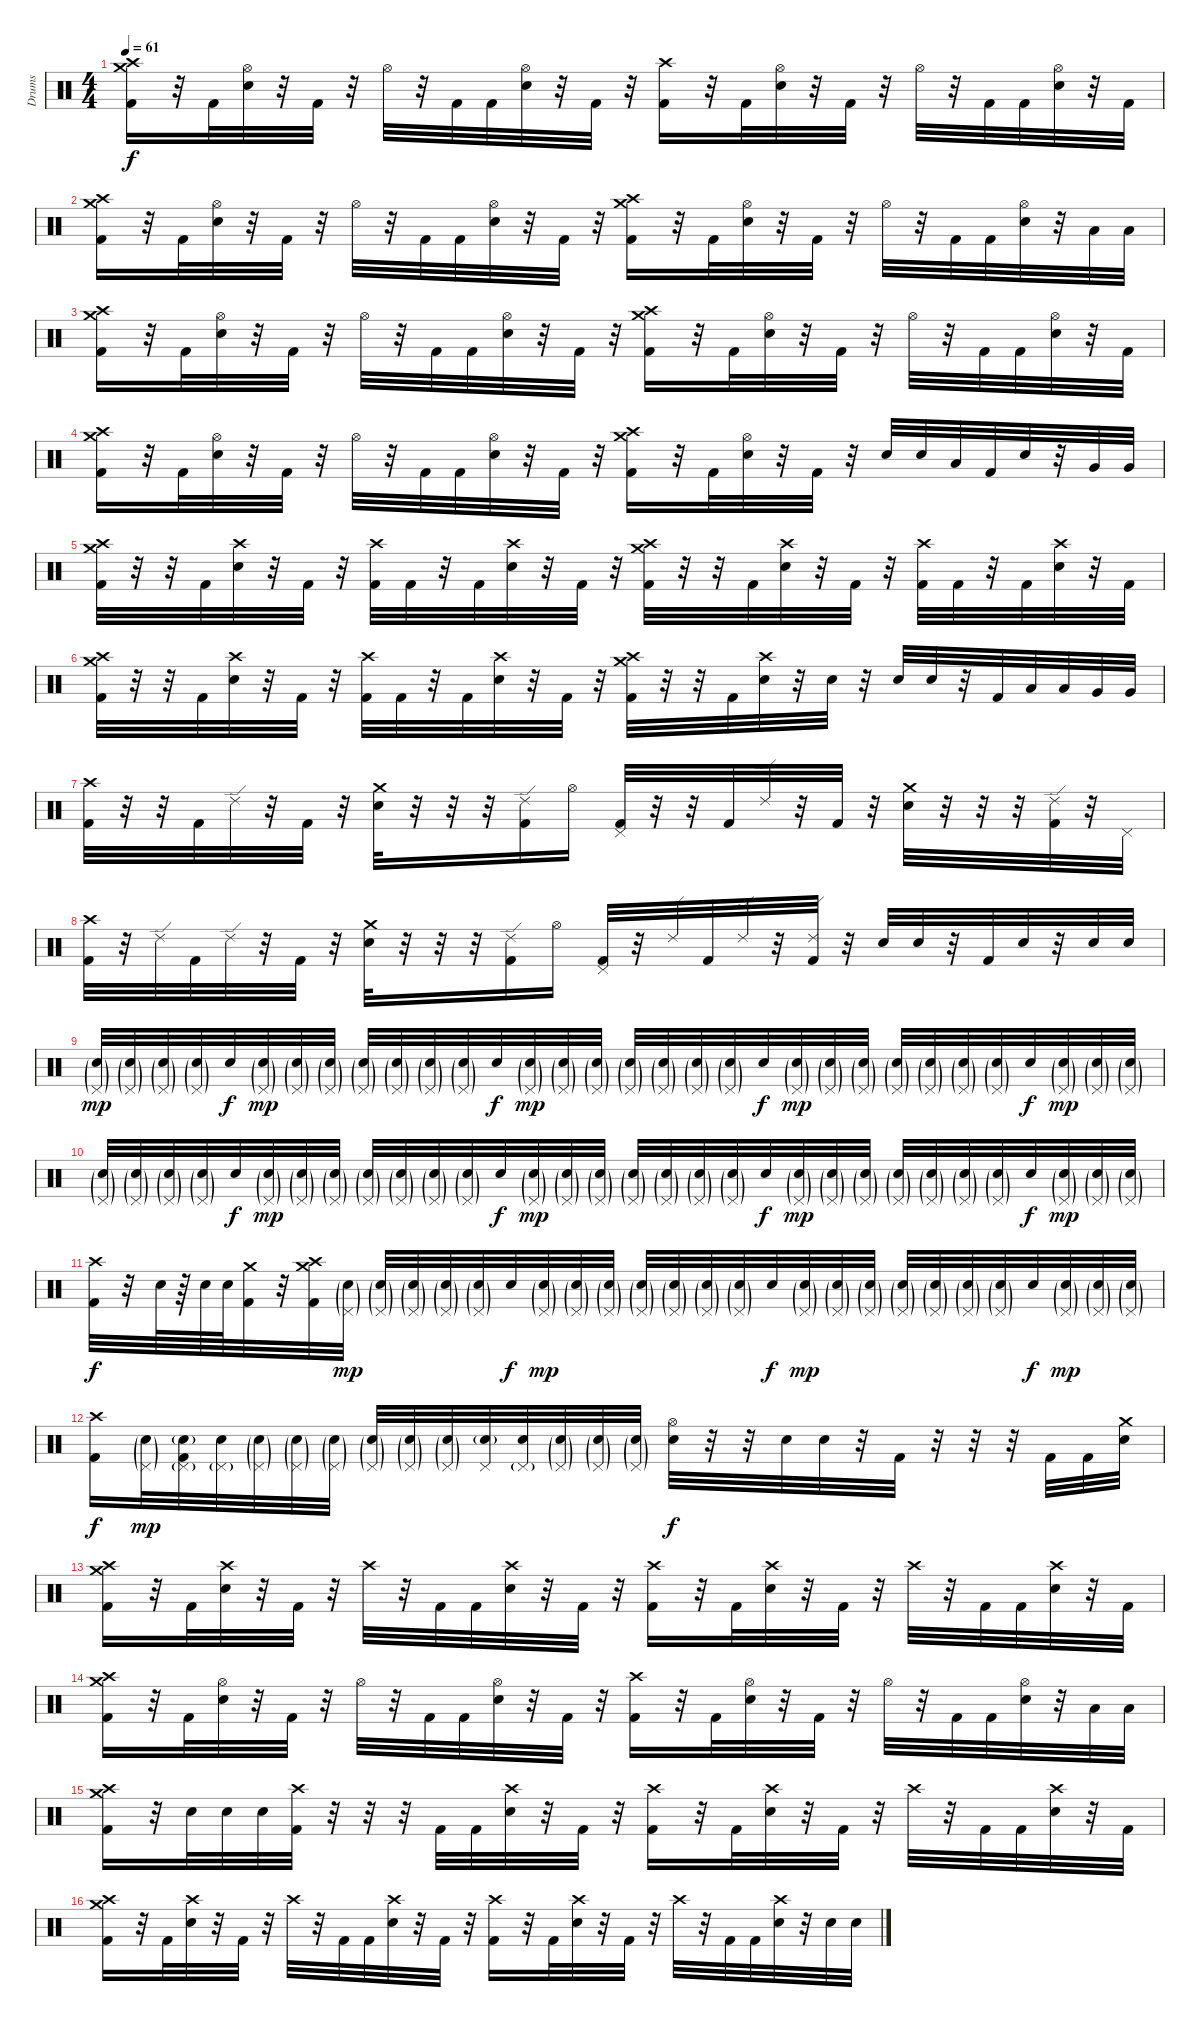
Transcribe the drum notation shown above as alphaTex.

\track ("Drums" "Drums") {instrument percussion}
\staff {score}
\articulation defaults
\ts (4 4)
\tempo 61
\clef neutral
\ks c
("Crash high (hit)" "Crash medium (hit)" "Kick (hit) 2").16{dy f} r.32 "Kick (hit) 2".32 ("Hi-Hat (open)" "Electric Snare (hit)").32 r.32 "Kick (hit) 2".32 r.32 "Hi-Hat (open)".32 r.32 "Kick (hit) 2".32 "Kick (hit) 2".32 ("Hi-Hat (open)" "Electric Snare (hit)").32 r.32 "Kick (hit) 2".32 r.32 ("Crash high (hit)" "Kick (hit) 2").16 r.32 "Kick (hit) 2".32 ("Hi-Hat (open)" "Electric Snare (hit)").32 r.32 "Kick (hit) 2".32 r.32 "Hi-Hat (open)".32 r.32 "Kick (hit) 2".32 "Kick (hit) 2".32 ("Hi-Hat (open)" "Electric Snare (hit)").32 r.32 "Kick (hit) 2".32 |
("Crash high (hit)" "Crash medium (hit)" "Kick (hit) 2").16 r.32 "Kick (hit) 2".32 ("Hi-Hat (open)" "Electric Snare (hit)").32 r.32 "Kick (hit) 2".32 r.32 "Hi-Hat (open)".32 r.32 "Kick (hit) 2".32 "Kick (hit) 2".32 ("Hi-Hat (open)" "Electric Snare (hit)").32 r.32 "Kick (hit) 2".32 r.32 ("Crash high (hit)" "Crash medium (hit)" "Kick (hit) 2").16 r.32 "Kick (hit) 2".32 ("Hi-Hat (open)" "Electric Snare (hit)").32 r.32 "Kick (hit) 2".32 r.32 "Hi-Hat (open)".32 r.32 "Kick (hit) 2".32 "Kick (hit) 2".32 ("Hi-Hat (open)" "Electric Snare (hit)").32 r.32 "Low Tom (hit)".32 "Low Tom (hit)".32 |
("Crash high (hit)" "Crash medium (hit)" "Kick (hit) 2").16 r.32 "Kick (hit) 2".32 ("Hi-Hat (open)" "Electric Snare (hit)").32 r.32 "Kick (hit) 2".32 r.32 "Hi-Hat (open)".32 r.32 "Kick (hit) 2".32 "Kick (hit) 2".32 ("Hi-Hat (open)" "Electric Snare (hit)").32 r.32 "Kick (hit) 2".32 r.32 ("Crash high (hit)" "Crash medium (hit)" "Kick (hit) 2").16 r.32 "Kick (hit) 2".32 ("Hi-Hat (open)" "Electric Snare (hit)").32 r.32 "Kick (hit) 2".32 r.32 "Hi-Hat (open)".32 r.32 "Kick (hit) 2".32 "Kick (hit) 2".32 ("Hi-Hat (open)" "Electric Snare (hit)").32 r.32 "Kick (hit) 2".32 |
("Crash high (hit)" "Crash medium (hit)" "Kick (hit) 2").16 r.32 "Kick (hit) 2".32 ("Hi-Hat (open)" "Electric Snare (hit)").32 r.32 "Kick (hit) 2".32 r.32 "Hi-Hat (open)".32 r.32 "Kick (hit) 2".32 "Kick (hit) 2".32 ("Hi-Hat (open)" "Electric Snare (hit)").32 r.32 "Kick (hit) 2".32 r.32 ("Crash high (hit)" "Crash medium (hit)" "Kick (hit) 2").16 r.32 "Kick (hit) 2".32 ("Hi-Hat (open)" "Electric Snare (hit)").32 r.32 "Kick (hit) 2".32 r.32 "Electric Snare (hit)".32 "Electric Snare (hit)".32 "Low Tom (hit)".32 "Kick (hit) 2".32 "Electric Snare (hit)".32 r.32 "Very Low Tom (hit)".32 "Very Low Tom (hit)".32 |
("Crash high (hit)" "Crash medium (hit)" "Kick (hit) 2").32 r.32 r.32 "Kick (hit) 2".32 ("Crash high (hit)" "Electric Snare (hit)").32 r.32 "Kick (hit) 2".32 r.32 ("Crash high (hit)" "Kick (hit) 2").32 "Kick (hit) 2".32 r.32 "Kick (hit) 2".32 ("Crash high (hit)" "Electric Snare (hit)").32 r.32 "Kick (hit) 2".32 r.32 ("Crash high (hit)" "Crash medium (hit)" "Kick (hit) 2").32 r.32 r.32 "Kick (hit) 2".32 ("Crash high (hit)" "Electric Snare (hit)").32 r.32 "Kick (hit) 2".32 r.32 ("Crash high (hit)" "Kick (hit) 2").32 "Kick (hit) 2".32 r.32 "Kick (hit) 2".32 ("Crash high (hit)" "Electric Snare (hit)").32 r.32 "Kick (hit) 2".32 |
("Crash high (hit)" "Crash medium (hit)" "Kick (hit) 2").32 r.32 r.32 "Kick (hit) 2".32 ("Crash high (hit)" "Electric Snare (hit)").32 r.32 "Kick (hit) 2".32 r.32 ("Crash high (hit)" "Kick (hit) 2").32 "Kick (hit) 2".32 r.32 "Kick (hit) 2".32 ("Crash high (hit)" "Electric Snare (hit)").32 r.32 "Kick (hit) 2".32 r.32 ("Crash high (hit)" "Crash medium (hit)" "Kick (hit) 2").32 r.32 r.32 "Kick (hit) 2".32 ("Crash high (hit)" "Electric Snare (hit)").32 r.32 "Electric Snare (hit)".32 r.32 "Electric Snare (hit)".32 "Electric Snare (hit)".32 r.32 "Kick (hit) 2".32 "Low Tom (hit)".32 "Low Tom (hit)".32 "Very Low Tom (hit)".32 "Very Low Tom (hit)".32 |
("Crash high (hit)" "Kick (hit) 2").32 r.32 r.32 "Kick (hit) 2".32 "Ride (edge) 2".32 r.32 "Kick (hit) 2".32 r.32 ("Crash medium (hit)" "Electric Snare (hit)").32 r.32 r.32 r.32 ("Ride (edge) 2" "Kick (hit) 2").16 "Hi-Hat (open)".16 ("Pedal Hi-Hat (hit)" "Kick (hit) 2").32 r.32 r.32 "Kick (hit) 2".32 "Ride (edge) 2".32 r.32 "Kick (hit) 2".32 r.32 ("Crash medium (hit)" "Electric Snare (hit)").32 r.32 r.32 r.32 ("Ride (edge) 2" "Kick (hit) 2").32 r.32 "Pedal Hi-Hat (hit)".32 |
("Crash high (hit)" "Kick (hit) 2").32 r.32 "Ride (edge) 2".32 "Kick (hit) 2".32 "Ride (edge) 2".32 r.32 "Kick (hit) 2".32 r.32 ("Crash medium (hit)" "Electric Snare (hit)").32 r.32 r.32 r.32 ("Ride (edge) 2" "Kick (hit) 2").16 "Hi-Hat (open)".16 ("Pedal Hi-Hat (hit)" "Kick (hit) 2").32 r.32 "Ride (edge) 2".32 "Kick (hit) 2".32 "Ride (edge) 2".32 r.32 ("Ride (edge) 2" "Kick (hit) 2").32 r.32 "Electric Snare (hit)".32 "Electric Snare (hit)".32 r.32 "Kick (hit) 2".32 "Electric Snare (hit)".32 r.32 "Electric Snare (hit)".32 "Electric Snare (hit)".32 |
("Pedal Hi-Hat (hit)"{g} "Snare (hit) 2"{g}).32{dy mp} ("Pedal Hi-Hat (hit)"{g} "Snare (hit) 2"{g}).32 ("Pedal Hi-Hat (hit)"{g} "Snare (hit) 2"{g}).32 ("Pedal Hi-Hat (hit)"{g} "Snare (hit) 2"{g}).32 "Electric Snare (hit)".32{dy f} ("Pedal Hi-Hat (hit)"{g} "Snare (hit) 2"{g}).32{dy mp} ("Pedal Hi-Hat (hit)"{g} "Snare (hit) 2"{g}).32 ("Pedal Hi-Hat (hit)"{g} "Snare (hit) 2"{g}).32 ("Pedal Hi-Hat (hit)"{g} "Snare (hit) 2"{g}).32 ("Pedal Hi-Hat (hit)"{g} "Snare (hit) 2"{g}).32 ("Pedal Hi-Hat (hit)"{g} "Snare (hit) 2"{g}).32 ("Pedal Hi-Hat (hit)"{g} "Snare (hit) 2"{g}).32 "Electric Snare (hit)".32{dy f} ("Pedal Hi-Hat (hit)"{g} "Snare (hit) 2"{g}).32{dy mp} ("Pedal Hi-Hat (hit)"{g} "Snare (hit) 2"{g}).32 ("Pedal Hi-Hat (hit)"{g} "Snare (hit) 2"{g}).32 ("Pedal Hi-Hat (hit)"{g} "Snare (hit) 2"{g}).32 ("Pedal Hi-Hat (hit)"{g} "Snare (hit) 2"{g}).32 ("Pedal Hi-Hat (hit)"{g} "Snare (hit) 2"{g}).32 ("Pedal Hi-Hat (hit)"{g} "Snare (hit) 2"{g}).32 "Electric Snare (hit)".32{dy f} ("Pedal Hi-Hat (hit)"{g} "Snare (hit) 2"{g}).32{dy mp} ("Pedal Hi-Hat (hit)"{g} "Snare (hit) 2"{g}).32 ("Pedal Hi-Hat (hit)"{g} "Snare (hit) 2"{g}).32 ("Pedal Hi-Hat (hit)"{g} "Snare (hit) 2"{g}).32 ("Pedal Hi-Hat (hit)"{g} "Snare (hit) 2"{g}).32 ("Pedal Hi-Hat (hit)"{g} "Snare (hit) 2"{g}).32 ("Pedal Hi-Hat (hit)"{g} "Snare (hit) 2"{g}).32 "Electric Snare (hit)".32{dy f} ("Pedal Hi-Hat (hit)"{g} "Snare (hit) 2"{g}).32{dy mp} ("Pedal Hi-Hat (hit)"{g} "Snare (hit) 2"{g}).32 ("Pedal Hi-Hat (hit)"{g} "Snare (hit) 2"{g}).32 |
("Pedal Hi-Hat (hit)"{g} "Snare (hit) 2"{g}).32 ("Pedal Hi-Hat (hit)"{g} "Snare (hit) 2"{g}).32 ("Pedal Hi-Hat (hit)"{g} "Snare (hit) 2"{g}).32 ("Pedal Hi-Hat (hit)"{g} "Snare (hit) 2"{g}).32 "Electric Snare (hit)".32{dy f} ("Pedal Hi-Hat (hit)"{g} "Snare (hit) 2"{g}).32{dy mp} ("Pedal Hi-Hat (hit)"{g} "Snare (hit) 2"{g}).32 ("Pedal Hi-Hat (hit)"{g} "Snare (hit) 2"{g}).32 ("Pedal Hi-Hat (hit)"{g} "Snare (hit) 2"{g}).32 ("Pedal Hi-Hat (hit)"{g} "Snare (hit) 2"{g}).32 ("Pedal Hi-Hat (hit)"{g} "Snare (hit) 2"{g}).32 ("Pedal Hi-Hat (hit)"{g} "Snare (hit) 2"{g}).32 "Electric Snare (hit)".32{dy f} ("Pedal Hi-Hat (hit)"{g} "Snare (hit) 2"{g}).32{dy mp} ("Pedal Hi-Hat (hit)"{g} "Snare (hit) 2"{g}).32 ("Pedal Hi-Hat (hit)"{g} "Snare (hit) 2"{g}).32 ("Pedal Hi-Hat (hit)"{g} "Snare (hit) 2"{g}).32 ("Pedal Hi-Hat (hit)"{g} "Snare (hit) 2"{g}).32 ("Pedal Hi-Hat (hit)"{g} "Snare (hit) 2"{g}).32 ("Pedal Hi-Hat (hit)"{g} "Snare (hit) 2"{g}).32 "Electric Snare (hit)".32{dy f} ("Pedal Hi-Hat (hit)"{g} "Snare (hit) 2"{g}).32{dy mp} ("Pedal Hi-Hat (hit)"{g} "Snare (hit) 2"{g}).32 ("Pedal Hi-Hat (hit)"{g} "Snare (hit) 2"{g}).32 ("Pedal Hi-Hat (hit)"{g} "Snare (hit) 2"{g}).32 ("Pedal Hi-Hat (hit)"{g} "Snare (hit) 2"{g}).32 ("Pedal Hi-Hat (hit)"{g} "Snare (hit) 2"{g}).32 ("Pedal Hi-Hat (hit)"{g} "Snare (hit) 2"{g}).32 "Electric Snare (hit)".32{dy f} ("Pedal Hi-Hat (hit)"{g} "Snare (hit) 2"{g}).32{dy mp} ("Pedal Hi-Hat (hit)"{g} "Snare (hit) 2"{g}).32 ("Pedal Hi-Hat (hit)"{g} "Snare (hit) 2"{g}).32 |
("Crash high (hit)" "Kick (hit) 2").32{dy f} r.32 "Electric Snare (hit)".64 r.64 "Electric Snare (hit)".64 "Electric Snare (hit)".64 ("Crash medium (hit)" "Kick (hit) 2").32 r.32 ("Crash high (hit)" "Crash medium (hit)" "Kick (hit) 2").32 ("Pedal Hi-Hat (hit)"{g} "Snare (hit) 2"{g}).32{dy mp} ("Pedal Hi-Hat (hit)"{g} "Snare (hit) 2"{g}).32 ("Pedal Hi-Hat (hit)"{g} "Snare (hit) 2"{g}).32 ("Pedal Hi-Hat (hit)"{g} "Snare (hit) 2"{g}).32 ("Pedal Hi-Hat (hit)"{g} "Snare (hit) 2"{g}).32 "Electric Snare (hit)".32{dy f} ("Pedal Hi-Hat (hit)"{g} "Snare (hit) 2"{g}).32{dy mp} ("Pedal Hi-Hat (hit)"{g} "Snare (hit) 2"{g}).32 ("Pedal Hi-Hat (hit)"{g} "Snare (hit) 2"{g}).32 ("Pedal Hi-Hat (hit)"{g} "Snare (hit) 2"{g}).32 ("Pedal Hi-Hat (hit)"{g} "Snare (hit) 2"{g}).32 ("Pedal Hi-Hat (hit)"{g} "Snare (hit) 2"{g}).32 ("Pedal Hi-Hat (hit)"{g} "Snare (hit) 2"{g}).32 "Electric Snare (hit)".32{dy f} ("Pedal Hi-Hat (hit)"{g} "Snare (hit) 2"{g}).32{dy mp} ("Pedal Hi-Hat (hit)"{g} "Snare (hit) 2"{g}).32 ("Pedal Hi-Hat (hit)"{g} "Snare (hit) 2"{g}).32 ("Pedal Hi-Hat (hit)"{g} "Snare (hit) 2"{g}).32 ("Pedal Hi-Hat (hit)"{g} "Snare (hit) 2"{g}).32 ("Pedal Hi-Hat (hit)"{g} "Snare (hit) 2"{g}).32 ("Pedal Hi-Hat (hit)"{g} "Snare (hit) 2"{g}).32 "Electric Snare (hit)".32{dy f} ("Pedal Hi-Hat (hit)"{g} "Snare (hit) 2"{g}).32{dy mp} ("Pedal Hi-Hat (hit)"{g} "Snare (hit) 2"{g}).32 ("Pedal Hi-Hat (hit)"{g} "Snare (hit) 2"{g}).32 |
("Crash high (hit)" "Kick (hit) 2").16{dy f} ("Pedal Hi-Hat (hit)"{g} "Snare (hit) 2"{g}).32{dy mp} ("Pedal Hi-Hat (hit)"{g} "Snare (hit) 2"{g} "Kick (hit) 2").32 ("Pedal Hi-Hat (hit)"{g} "Electric Snare (hit)").32 ("Pedal Hi-Hat (hit)"{g} "Snare (hit) 2"{g}).32 ("Pedal Hi-Hat (hit)"{g} "Snare (hit) 2"{g}).32 ("Pedal Hi-Hat (hit)"{g} "Snare (hit) 2"{g}).32 ("Pedal Hi-Hat (hit)"{g} "Snare (hit) 2"{g}).32 ("Pedal Hi-Hat (hit)"{g} "Snare (hit) 2"{g}).32 ("Pedal Hi-Hat (hit)"{g} "Snare (hit) 2"{g}).32 ("Pedal Hi-Hat (hit)" "Snare (hit) 2"{g}).32 ("Pedal Hi-Hat (hit)"{g} "Electric Snare (hit)").32 ("Pedal Hi-Hat (hit)"{g} "Snare (hit) 2"{g}).32 ("Pedal Hi-Hat (hit)"{g} "Snare (hit) 2"{g}).32 ("Pedal Hi-Hat (hit)"{g} "Snare (hit) 2"{g}).32 ("Hi-Hat (open)" "Electric Snare (hit)").32{dy f} r.32 r.32 "Electric Snare (hit)".32 "Electric Snare (hit)".32 r.32 "Kick (hit) 2".32 r.32 r.32 r.32 "Kick (hit) 2".32 "Kick (hit) 2".32 ("Crash medium (hit)" "Electric Snare (hit)").32 |
("Crash high (hit)" "Crash medium (hit)" "Kick (hit) 2").16 r.32 "Kick (hit) 2".32 ("Crash high (hit)" "Electric Snare (hit)").32 r.32 "Kick (hit) 2".32 r.32 "Crash high (hit)".32 r.32 "Kick (hit) 2".32 "Kick (hit) 2".32 ("Crash high (hit)" "Electric Snare (hit)").32 r.32 "Kick (hit) 2".32 r.32 ("Crash high (hit)" "Kick (hit) 2").16 r.32 "Kick (hit) 2".32 ("Crash high (hit)" "Electric Snare (hit)").32 r.32 "Kick (hit) 2".32 r.32 "Crash high (hit)".32 r.32 "Kick (hit) 2".32 "Kick (hit) 2".32 ("Crash high (hit)" "Electric Snare (hit)").32 r.32 "Kick (hit) 2".32 |
("Crash high (hit)" "Crash medium (hit)" "Kick (hit) 2").16 r.32 "Kick (hit) 2".32 ("Hi-Hat (open)" "Electric Snare (hit)").32 r.32 "Kick (hit) 2".32 r.32 "Hi-Hat (open)".32 r.32 "Kick (hit) 2".32 "Kick (hit) 2".32 ("Hi-Hat (open)" "Electric Snare (hit)").32 r.32 "Kick (hit) 2".32 r.32 ("Crash high (hit)" "Kick (hit) 2").16 r.32 "Kick (hit) 2".32 ("Hi-Hat (open)" "Electric Snare (hit)").32 r.32 "Kick (hit) 2".32 r.32 "Hi-Hat (open)".32 r.32 "Kick (hit) 2".32 "Kick (hit) 2".32 ("Hi-Hat (open)" "Electric Snare (hit)").32 r.32 "Low Tom (hit)".32 "Low Tom (hit)".32 |
("Crash high (hit)" "Crash medium (hit)" "Kick (hit) 2").16 r.32 "Electric Snare (hit)".32 "Electric Snare (hit)".32 "Electric Snare (hit)".32 ("Crash high (hit)" "Kick (hit) 2").32 r.32 r.32 r.32 "Kick (hit) 2".32 "Kick (hit) 2".32 ("Crash high (hit)" "Electric Snare (hit)").32 r.32 "Kick (hit) 2".32 r.32 ("Crash high (hit)" "Kick (hit) 2").16 r.32 "Kick (hit) 2".32 ("Crash high (hit)" "Electric Snare (hit)").32 r.32 "Kick (hit) 2".32 r.32 "Crash high (hit)".32 r.32 "Kick (hit) 2".32 "Kick (hit) 2".32 ("Crash high (hit)" "Electric Snare (hit)").32 r.32 "Kick (hit) 2".32 |
("Crash high (hit)" "Crash medium (hit)" "Kick (hit) 2").16 r.32 "Kick (hit) 2".32 ("Crash high (hit)" "Electric Snare (hit)").32 r.32 "Kick (hit) 2".32 r.32 "Crash high (hit)".32 r.32 "Kick (hit) 2".32 "Kick (hit) 2".32 ("Crash high (hit)" "Electric Snare (hit)").32 r.32 "Kick (hit) 2".32 r.32 ("Crash high (hit)" "Kick (hit) 2").16 r.32 "Kick (hit) 2".32 ("Crash high (hit)" "Electric Snare (hit)").32 r.32 "Kick (hit) 2".32 r.32 "Crash high (hit)".32 r.32 "Kick (hit) 2".32 "Kick (hit) 2".32 ("Crash high (hit)" "Electric Snare (hit)").32 r.32 "Electric Snare (hit)".32 "Electric Snare (hit)".32
